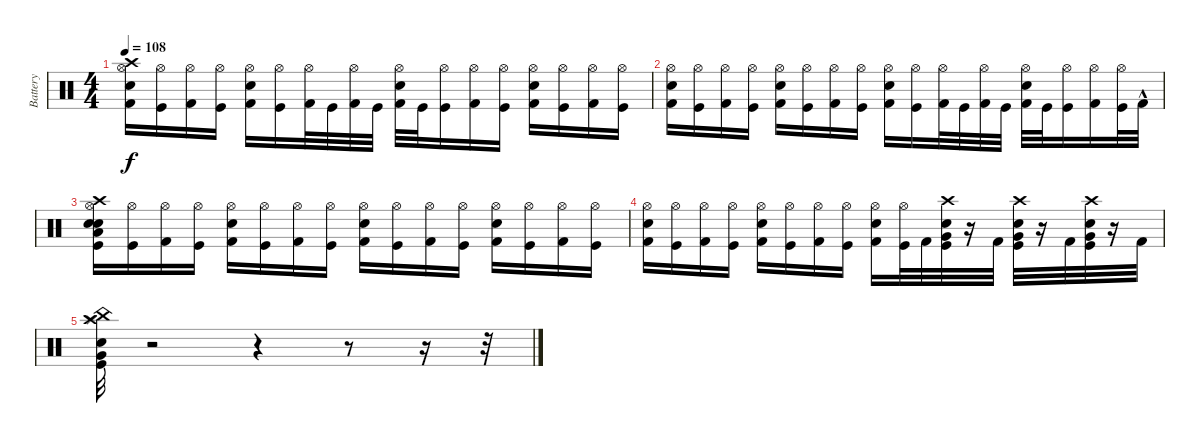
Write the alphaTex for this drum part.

\track ("Battery" "Battery") {instrument percussion}
\staff {score}
\articulation defaults
\ts (4 4)
\tempo 108
\clef neutral
\ks c
("Electric Snare (hit)" "Kick (hit) 2" "Hi-Hat (open)" "Crash high (hit)").16{dy f} ("Kick (hit)" "Hi-Hat (open)").16 ("Hi-Hat (open)" "Kick (hit) 2").16 ("Hi-Hat (open)" "Kick (hit)").16 ("Hi-Hat (open)" "Kick (hit) 2" "Electric Snare (hit)").16 ("Kick (hit)" "Hi-Hat (open)").16 ("Kick (hit) 2" "Hi-Hat (open)").32 "Kick (hit)".32 ("Hi-Hat (open)" "Kick (hit) 2").32 "Kick (hit)".32 ("Hi-Hat (open)" "Kick (hit) 2" "Electric Snare (hit)").32 "Kick (hit)".32 ("Kick (hit)" "Hi-Hat (open)").16 ("Kick (hit) 2" "Hi-Hat (open)").16 ("Hi-Hat (open)" "Kick (hit)").16 ("Kick (hit) 2" "Electric Snare (hit)" "Hi-Hat (open)").16 ("Hi-Hat (open)" "Kick (hit)").16 ("Kick (hit) 2" "Hi-Hat (open)").16 ("Kick (hit)" "Hi-Hat (open)").16 |
("Electric Snare (hit)" "Kick (hit) 2" "Hi-Hat (open)").16 ("Kick (hit)" "Hi-Hat (open)").16 ("Hi-Hat (open)" "Kick (hit) 2").16 ("Kick (hit)" "Hi-Hat (open)").16 ("Electric Snare (hit)" "Hi-Hat (open)" "Kick (hit) 2").16 ("Kick (hit)" "Hi-Hat (open)").16 ("Kick (hit) 2" "Hi-Hat (open)").16 ("Hi-Hat (open)" "Kick (hit)").16 ("Kick (hit) 2" "Electric Snare (hit)" "Hi-Hat (open)").16 ("Kick (hit)" "Hi-Hat (open)").16 ("Kick (hit) 2" "Hi-Hat (open)").32 "Kick (hit)".32 ("Hi-Hat (open)" "Kick (hit) 2").32 "Kick (hit)".32 ("Electric Snare (hit)" "Kick (hit) 2" "Hi-Hat (open)").32 "Kick (hit)".32 ("Kick (hit)" "Hi-Hat (open)").16 ("Hi-Hat (open)" "Kick (hit) 2").16 ("Kick (hit)" "Hi-Hat (open)").32 "Kick (hit) 2"{hac}.32 |
("Low Tom (hit)" "Hi-Hat (open)" "Kick (hit)" "Crash high (hit)" "Snare (hit) 2" "Electric Snare (hit)").16 ("Hi-Hat (open)" "Kick (hit)").16 ("Kick (hit) 2" "Hi-Hat (open)").16 ("Kick (hit)" "Hi-Hat (open)").16 ("Electric Snare (hit)" "Hi-Hat (open)" "Kick (hit) 2").16 ("Hi-Hat (open)" "Kick (hit)").16 ("Hi-Hat (open)" "Kick (hit) 2").16 ("Hi-Hat (open)" "Kick (hit)").16 ("Hi-Hat (open)" "Electric Snare (hit)" "Kick (hit) 2").16 ("Kick (hit)" "Hi-Hat (open)").16 ("Hi-Hat (open)" "Kick (hit) 2").16 ("Hi-Hat (open)" "Kick (hit)").16 ("Electric Snare (hit)" "Hi-Hat (open)" "Kick (hit) 2").16 ("Kick (hit)" "Hi-Hat (open)").16 ("Hi-Hat (open)" "Kick (hit) 2").16 ("Kick (hit)" "Hi-Hat (open)").16 |
("Electric Snare (hit)" "Kick (hit) 2" "Hi-Hat (open)").16 ("Kick (hit)" "Hi-Hat (open)").16 ("Hi-Hat (open)" "Kick (hit) 2").16 ("Kick (hit)" "Hi-Hat (open)").16 ("Kick (hit) 2" "Electric Snare (hit)" "Hi-Hat (open)").16 ("Hi-Hat (open)" "Kick (hit)").16 ("Hi-Hat (open)" "Kick (hit) 2").16 ("Hi-Hat (open)" "Kick (hit)").16 ("Electric Snare (hit)" "Kick (hit) 2" "Hi-Hat (open)").16 ("Hi-Hat (open)" "Kick (hit)").32 "Kick (hit) 2".32 ("Kick (hit)" "Very Low Tom (hit)" "Snare (hit) 2" "Crash high (hit)").32 r.16 "Kick (hit) 2".32 ("Very Low Tom (hit)" "Snare (hit) 2" "Crash high (hit)" "Kick (hit)").32 r.16 "Kick (hit) 2".32 ("Very Low Tom (hit)" "Snare (hit) 2" "Crash high (hit)" "Kick (hit)").32 r.16 "Kick (hit) 2".32 |
("China (hit)" "Splash (hit)" "Snare (hit) 2" "Very Low Tom (hit)" "Crash high (hit)" "Kick (hit)").32 r.2 r.4 r.8 r.16 r.32
